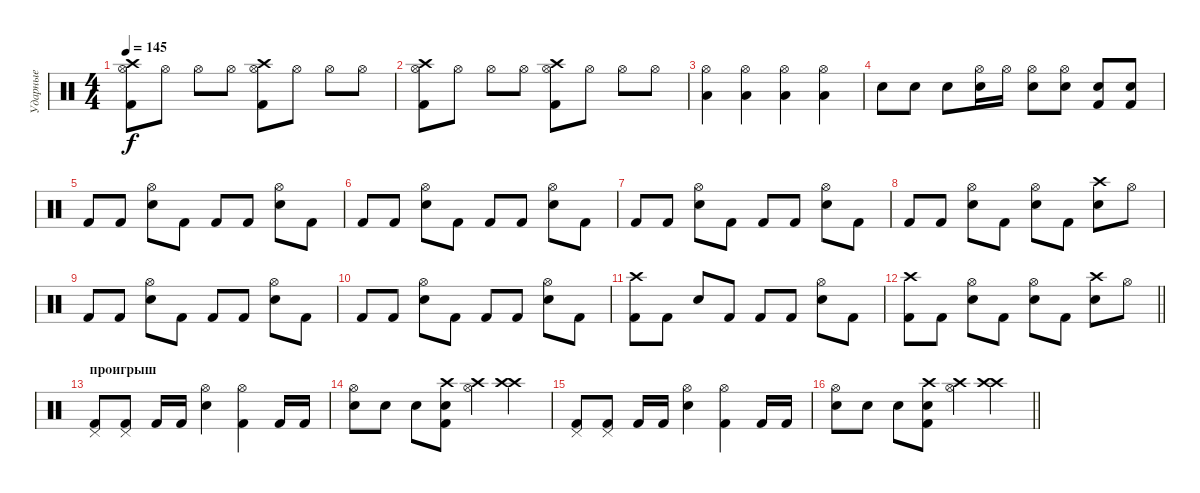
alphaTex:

\track ("Ударные" "Ударные") {instrument percussion}
\staff {score}
\articulation defaults
\ts (4 4)
\tempo 145
\clef neutral
\ks c
("Crash high (hit)" "Hi-Hat (open)" "Kick (hit) 2").8{dy f} "Hi-Hat (open)".8 "Hi-Hat (open)".8 "Hi-Hat (open)".8 ("Crash high (hit)" "Hi-Hat (open)" "Kick (hit) 2").8 "Hi-Hat (open)".8 "Hi-Hat (open)".8 "Hi-Hat (open)".8 |
("Crash high (hit)" "Hi-Hat (open)" "Kick (hit) 2").8 "Hi-Hat (open)".8 "Hi-Hat (open)".8 "Hi-Hat (open)".8 ("Crash high (hit)" "Hi-Hat (open)" "Kick (hit) 2").8 "Hi-Hat (open)".8 "Hi-Hat (open)".8 "Hi-Hat (open)".8 |
("Hi-Hat (open)" "Low Tom (hit)").4 ("Hi-Hat (open)" "Low Tom (hit)").4 ("Hi-Hat (open)" "Low Tom (hit)").4 ("Hi-Hat (open)" "Low Tom (hit)").4 |
"Electric Snare (hit)".8 "Electric Snare (hit)".8 "Electric Snare (hit)".8 ("Hi-Hat (open)" "Electric Snare (hit)").16 "Hi-Hat (open)".16 ("Hi-Hat (open)" "Electric Snare (hit)").8 ("Hi-Hat (open)" "Electric Snare (hit)").8 ("Electric Snare (hit)" "Kick (hit) 2").8 ("Electric Snare (hit)" "Kick (hit) 2").8 |
"Kick (hit) 2".8 "Kick (hit) 2".8 ("Hi-Hat (open)" "Electric Snare (hit)").8 "Kick (hit) 2".8 "Kick (hit) 2".8 "Kick (hit) 2".8 ("Hi-Hat (open)" "Electric Snare (hit)").8 "Kick (hit) 2".8 |
"Kick (hit) 2".8 "Kick (hit) 2".8 ("Hi-Hat (open)" "Electric Snare (hit)").8 "Kick (hit) 2".8 "Kick (hit) 2".8 "Kick (hit) 2".8 ("Hi-Hat (open)" "Electric Snare (hit)").8 "Kick (hit) 2".8 |
"Kick (hit) 2".8 "Kick (hit) 2".8 ("Hi-Hat (open)" "Electric Snare (hit)").8 "Kick (hit) 2".8 "Kick (hit) 2".8 "Kick (hit) 2".8 ("Hi-Hat (open)" "Electric Snare (hit)").8 "Kick (hit) 2".8 |
"Kick (hit) 2".8 "Kick (hit) 2".8 ("Hi-Hat (open)" "Electric Snare (hit)").8 "Kick (hit) 2".8 ("Hi-Hat (open)" "Electric Snare (hit)").8 "Kick (hit) 2".8 ("Crash high (hit)" "Electric Snare (hit)").8 "Hi-Hat (open)".8 |
"Kick (hit) 2".8 "Kick (hit) 2".8 ("Hi-Hat (open)" "Electric Snare (hit)").8 "Kick (hit) 2".8 "Kick (hit) 2".8 "Kick (hit) 2".8 ("Hi-Hat (open)" "Electric Snare (hit)").8 "Kick (hit) 2".8 |
"Kick (hit) 2".8 "Kick (hit) 2".8 ("Hi-Hat (open)" "Electric Snare (hit)").8 "Kick (hit) 2".8 "Kick (hit) 2".8 "Kick (hit) 2".8 ("Hi-Hat (open)" "Electric Snare (hit)").8 "Kick (hit) 2".8 |
("Crash high (hit)" "Kick (hit) 2").8 "Kick (hit) 2".8 "Electric Snare (hit)".8 "Kick (hit) 2".8 "Kick (hit) 2".8 "Kick (hit) 2".8 ("Hi-Hat (open)" "Electric Snare (hit)").8 "Kick (hit) 2".8 |
\barLineRight lightlight
("Crash high (hit)" "Kick (hit) 2").8 "Kick (hit) 2".8 ("Hi-Hat (open)" "Electric Snare (hit)").8 "Kick (hit) 2".8 ("Hi-Hat (open)" "Electric Snare (hit)").8 "Kick (hit) 2".8 ("Crash high (hit)" "Electric Snare (hit)").8 "Hi-Hat (open)".8 |
\section ("" "проигрыш")
("Pedal Hi-Hat (hit)" "Kick (hit) 2").8 ("Pedal Hi-Hat (hit)" "Kick (hit) 2").8 "Kick (hit) 2".16 "Kick (hit) 2".16 ("Hi-Hat (open)" "Electric Snare (hit)").4 ("Hi-Hat (open)" "Kick (hit) 2").4 "Kick (hit) 2".16 "Kick (hit) 2".16 |
("Hi-Hat (open)" "Electric Snare (hit)").8 "Electric Snare (hit)".8 "Electric Snare (hit)".8 ("Crash high (hit)" "Electric Snare (hit)" "Kick (hit) 2").8 ("Hi-Hat (open)" "Crash high (hit)").4 ("Crash high (hit)" "Crash high (hit)").4 |
("Pedal Hi-Hat (hit)" "Kick (hit) 2").8 ("Pedal Hi-Hat (hit)" "Kick (hit) 2").8 "Kick (hit) 2".16 "Kick (hit) 2".16 ("Hi-Hat (open)" "Electric Snare (hit)").4 ("Hi-Hat (open)" "Kick (hit) 2").4 "Kick (hit) 2".16 "Kick (hit) 2".16 |
\barLineRight lightlight
("Hi-Hat (open)" "Electric Snare (hit)").8 "Electric Snare (hit)".8 "Electric Snare (hit)".8 ("Crash high (hit)" "Electric Snare (hit)" "Kick (hit) 2").8 ("Hi-Hat (open)" "Crash high (hit)").4 ("Crash high (hit)" "Crash high (hit)").4
